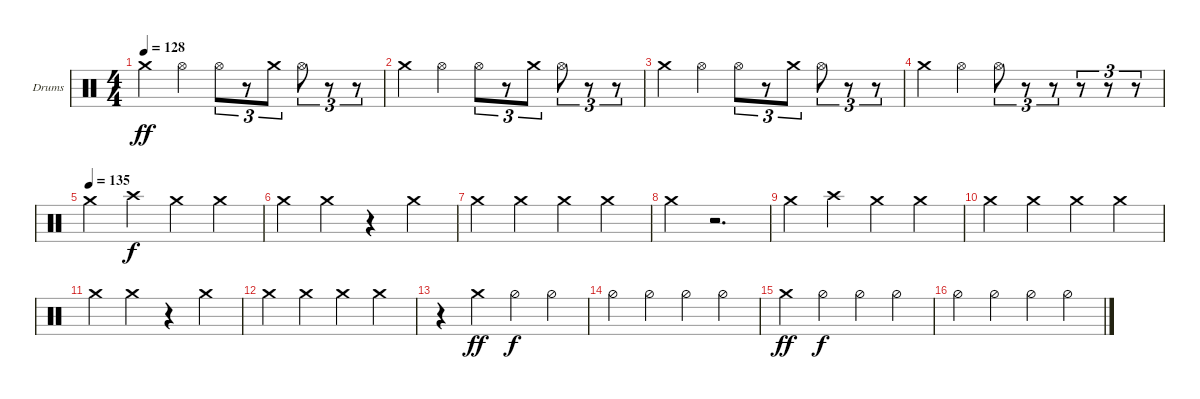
\defaultSystemsLayout 4
\bracketExtendMode groupsimilarinstruments
\firstSystemTrackNameOrientation horizontal
\otherSystemsTrackNameOrientation horizontal
\track ("Drumkit" "Drums") {instrument percussion}
\staff {score}
\articulation defaults
\ts (4 4)
\tempo 128
\clef neutral
\scale
0.333333
\ks c "Crash medium (hit)".4{dy ff} "Hi-Hat (open)".4 "Hi-Hat (open)".8{tu (3 2)}
r.8{tu (3 2)} "Crash medium (hit)".8{tu (3 2)} "Hi-Hat (open)".8{tu (3 2)} r.8{tu (3 2)} r.8{tu (3 2)} |
\scale
0.333333 "Crash medium (hit)".4 "Hi-Hat (open)".4 "Hi-Hat (open)".8{tu (3 2)} r.8{tu (3 2)} "Crash medium (hit)".8{tu (3 2)} "Hi-Hat (open)".8{tu (3 2)} r.8{tu (3 2)} r.8{tu (3 2)} |
\scale
0.333333 "Crash medium (hit)".4 "Hi-Hat (open)".4 "Hi-Hat (open)".8{tu (3 2)} r.8{tu (3 2)} "Crash medium (hit)".8{tu (3 2)} "Hi-Hat (open)".8{tu (3 2)} r.8{tu (3 2)} r.8{tu (3 2)} |
\scale
0.333333 "Crash medium (hit)".4 "Hi-Hat (open)".4 "Hi-Hat (open)".8{tu (3 2)} r.8{tu (3 2)} r.8{tu (3 2)} r.8{tu (3 2)} r.8{tu (3 2)} r.8{tu (3 2)} |
\tempo 135
\scale
0.333333 "Crash medium (hit)".4 "Crash high (hit)".4{dy f} "Crash medium (hit)".4 "Crash medium (hit)".4 |
\scale
0.333333 "Crash medium (hit)".4 "Crash medium (hit)".4 r.4 "Crash medium (hit)".4 |
\scale
0.333333 "Crash medium (hit)".4 "Crash medium (hit)".4 "Crash medium (hit)".4 "Crash medium (hit)".4 |
\scale
0.333333 "Crash medium (hit)".4 r.2{d} |
\scale
0.333333 "Crash medium (hit)".4 "Crash high (hit)".4 "Crash medium (hit)".4 "Crash medium (hit)".4 |
\scale
0.333333 "Crash medium (hit)".4 "Crash medium (hit)".4 "Crash medium (hit)".4 "Crash medium (hit)".4 |
\scale
0.333333 "Crash medium (hit)".4 "Crash medium (hit)".4 r.4 "Crash medium (hit)".4 |
\scale
0.333333 "Crash medium (hit)".4 "Crash medium (hit)".4 "Crash medium (hit)".4 "Crash medium (hit)".4 |
\scale
0.333333 r.4 "Crash medium (hit)".4{dy ff} "Hi-Hat (half)".4{dy f} "Hi-Hat (half)".4 |
\scale
0.333333 "Hi-Hat (half)".4 "Hi-Hat (half)".4 "Hi-Hat (half)".4 "Hi-Hat (half)".4 |
\scale
0.333333 "Crash medium (hit)".4{dy ff} "Hi-Hat (half)".4{dy f} "Hi-Hat (half)".4 "Hi-Hat (half)".4 |
\scale
0.333333 "Hi-Hat (half)".4 "Hi-Hat (half)".4 "Hi-Hat (half)".4 "Hi-Hat (half)".4
